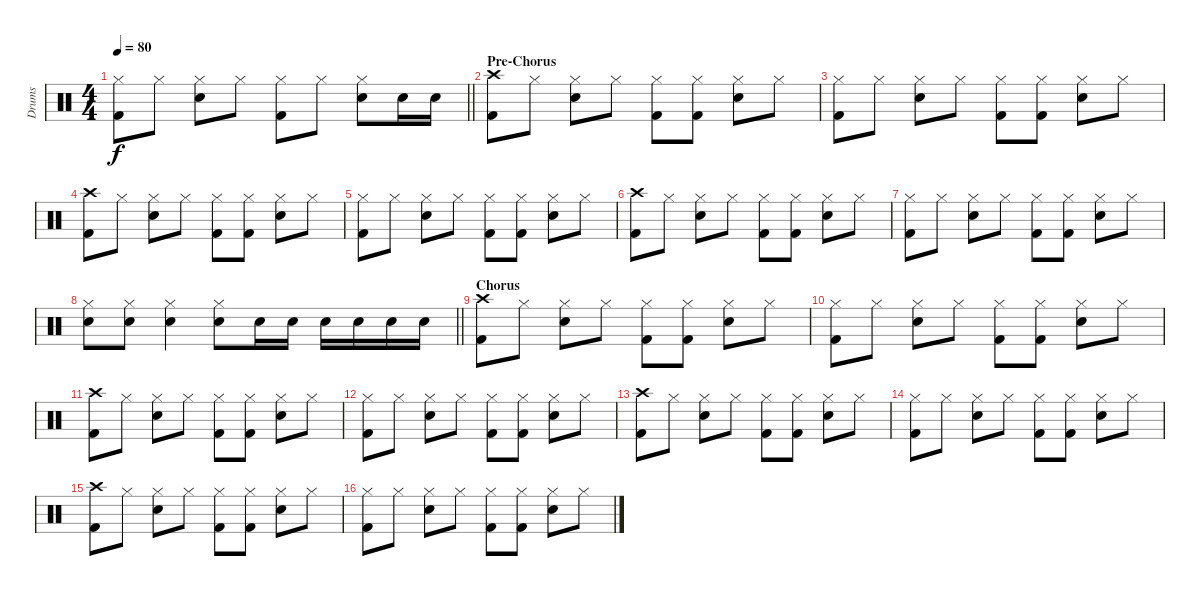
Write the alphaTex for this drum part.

\track ("Drums" "Drums") {instrument percussion}
\staff {score}
\articulation defaults
\ts (4 4)
\tempo 80
\clef neutral
\barLineRight lightlight
\ks c
("Hi-Hat (closed)" "Kick (hit) 2").8{dy f} "Hi-Hat (closed)".8 ("Hi-Hat (closed)" "Electric Snare (hit)").8 "Hi-Hat (closed)".8 ("Hi-Hat (closed)" "Kick (hit) 2").8 "Hi-Hat (closed)".8 ("Hi-Hat (closed)" "Electric Snare (hit)").8 "Electric Snare (hit)".16 "Electric Snare (hit)".16 |
\section ("" "Pre-Chorus")
("Crash high (hit)" "Kick (hit) 2").8 "Hi-Hat (closed)".8 ("Hi-Hat (closed)" "Electric Snare (hit)").8 "Hi-Hat (closed)".8 ("Hi-Hat (closed)" "Kick (hit) 2").8 ("Hi-Hat (closed)" "Kick (hit) 2").8 ("Hi-Hat (closed)" "Electric Snare (hit)").8 "Hi-Hat (closed)".8 |
("Hi-Hat (closed)" "Kick (hit) 2").8 "Hi-Hat (closed)".8 ("Hi-Hat (closed)" "Electric Snare (hit)").8 "Hi-Hat (closed)".8 ("Hi-Hat (closed)" "Kick (hit) 2").8 ("Hi-Hat (closed)" "Kick (hit) 2").8 ("Hi-Hat (closed)" "Electric Snare (hit)").8 "Hi-Hat (closed)".8 |
("Crash high (hit)" "Kick (hit) 2").8 "Hi-Hat (closed)".8 ("Hi-Hat (closed)" "Electric Snare (hit)").8 "Hi-Hat (closed)".8 ("Hi-Hat (closed)" "Kick (hit) 2").8 ("Hi-Hat (closed)" "Kick (hit) 2").8 ("Hi-Hat (closed)" "Electric Snare (hit)").8 "Hi-Hat (closed)".8 |
("Hi-Hat (closed)" "Kick (hit) 2").8 "Hi-Hat (closed)".8 ("Hi-Hat (closed)" "Electric Snare (hit)").8 "Hi-Hat (closed)".8 ("Hi-Hat (closed)" "Kick (hit) 2").8 ("Hi-Hat (closed)" "Kick (hit) 2").8 ("Hi-Hat (closed)" "Electric Snare (hit)").8 "Hi-Hat (closed)".8 |
("Crash high (hit)" "Kick (hit) 2").8 "Hi-Hat (closed)".8 ("Hi-Hat (closed)" "Electric Snare (hit)").8 "Hi-Hat (closed)".8 ("Hi-Hat (closed)" "Kick (hit) 2").8 ("Hi-Hat (closed)" "Kick (hit) 2").8 ("Hi-Hat (closed)" "Electric Snare (hit)").8 "Hi-Hat (closed)".8 |
("Hi-Hat (closed)" "Kick (hit) 2").8 "Hi-Hat (closed)".8 ("Hi-Hat (closed)" "Electric Snare (hit)").8 "Hi-Hat (closed)".8 ("Hi-Hat (closed)" "Kick (hit) 2").8 ("Hi-Hat (closed)" "Kick (hit) 2").8 ("Hi-Hat (closed)" "Electric Snare (hit)").8 "Hi-Hat (closed)".8 |
\barLineRight lightlight
("Hi-Hat (closed)" "Electric Snare (hit)").8 ("Hi-Hat (closed)" "Electric Snare (hit)").8 ("Hi-Hat (closed)" "Electric Snare (hit)").4 ("Hi-Hat (closed)" "Electric Snare (hit)").8 "Electric Snare (hit)".16 "Electric Snare (hit)".16 "Electric Snare (hit)".16 "Electric Snare (hit)".16 "Electric Snare (hit)".16 "Electric Snare (hit)".16 |
\section ("" "Chorus")
("Crash high (hit)" "Kick (hit) 2").8 "Hi-Hat (closed)".8 ("Hi-Hat (closed)" "Electric Snare (hit)").8 "Hi-Hat (closed)".8 ("Hi-Hat (closed)" "Kick (hit) 2").8 ("Hi-Hat (closed)" "Kick (hit) 2").8 ("Hi-Hat (closed)" "Electric Snare (hit)").8 "Hi-Hat (closed)".8 |
("Hi-Hat (closed)" "Kick (hit) 2").8 "Hi-Hat (closed)".8 ("Hi-Hat (closed)" "Electric Snare (hit)").8 "Hi-Hat (closed)".8 ("Hi-Hat (closed)" "Kick (hit) 2").8 ("Hi-Hat (closed)" "Kick (hit) 2").8 ("Hi-Hat (closed)" "Electric Snare (hit)").8 "Hi-Hat (closed)".8 |
("Crash high (hit)" "Kick (hit) 2").8 "Hi-Hat (closed)".8 ("Hi-Hat (closed)" "Electric Snare (hit)").8 "Hi-Hat (closed)".8 ("Hi-Hat (closed)" "Kick (hit) 2").8 ("Hi-Hat (closed)" "Kick (hit) 2").8 ("Hi-Hat (closed)" "Electric Snare (hit)").8 "Hi-Hat (closed)".8 |
("Hi-Hat (closed)" "Kick (hit) 2").8 "Hi-Hat (closed)".8 ("Hi-Hat (closed)" "Electric Snare (hit)").8 "Hi-Hat (closed)".8 ("Hi-Hat (closed)" "Kick (hit) 2").8 ("Hi-Hat (closed)" "Kick (hit) 2").8 ("Hi-Hat (closed)" "Electric Snare (hit)").8 "Hi-Hat (closed)".8 |
("Crash high (hit)" "Kick (hit) 2").8 "Hi-Hat (closed)".8 ("Hi-Hat (closed)" "Electric Snare (hit)").8 "Hi-Hat (closed)".8 ("Hi-Hat (closed)" "Kick (hit) 2").8 ("Hi-Hat (closed)" "Kick (hit) 2").8 ("Hi-Hat (closed)" "Electric Snare (hit)").8 "Hi-Hat (closed)".8 |
("Hi-Hat (closed)" "Kick (hit) 2").8 "Hi-Hat (closed)".8 ("Hi-Hat (closed)" "Electric Snare (hit)").8 "Hi-Hat (closed)".8 ("Hi-Hat (closed)" "Kick (hit) 2").8 ("Hi-Hat (closed)" "Kick (hit) 2").8 ("Hi-Hat (closed)" "Electric Snare (hit)").8 "Hi-Hat (closed)".8 |
("Crash high (hit)" "Kick (hit) 2").8 "Hi-Hat (closed)".8 ("Hi-Hat (closed)" "Electric Snare (hit)").8 "Hi-Hat (closed)".8 ("Hi-Hat (closed)" "Kick (hit) 2").8 ("Hi-Hat (closed)" "Kick (hit) 2").8 ("Hi-Hat (closed)" "Electric Snare (hit)").8 "Hi-Hat (closed)".8 |
("Hi-Hat (closed)" "Kick (hit) 2").8 "Hi-Hat (closed)".8 ("Hi-Hat (closed)" "Electric Snare (hit)").8 "Hi-Hat (closed)".8 ("Hi-Hat (closed)" "Kick (hit) 2").8 ("Hi-Hat (closed)" "Kick (hit) 2").8 ("Hi-Hat (closed)" "Electric Snare (hit)").8 "Hi-Hat (closed)".8
